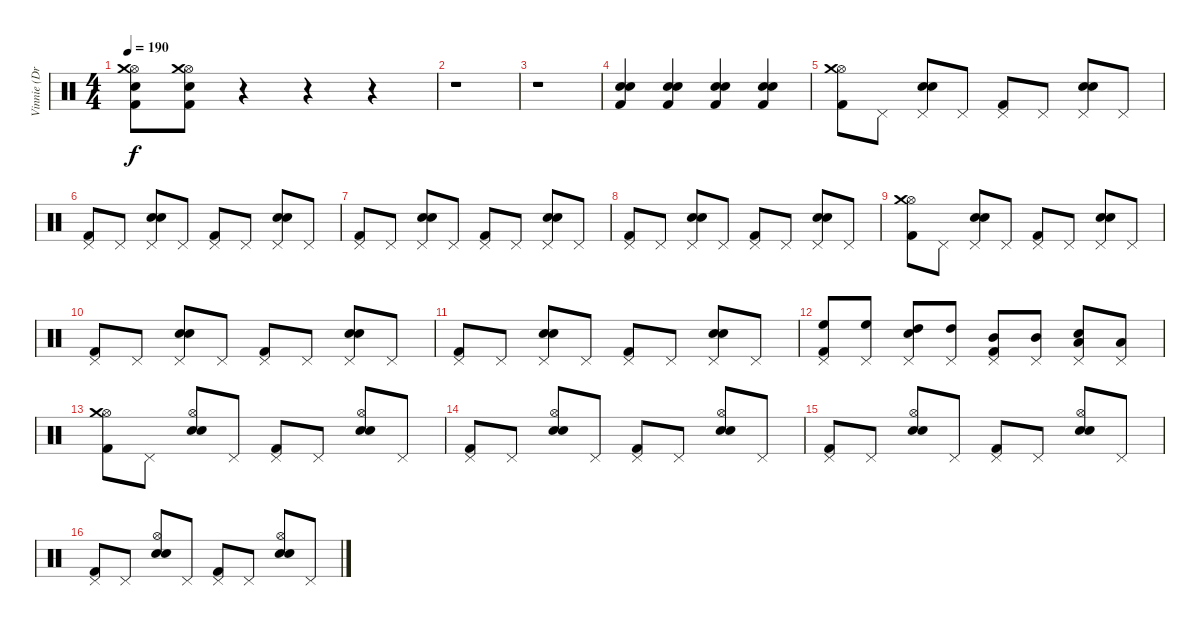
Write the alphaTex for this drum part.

\track ("Vinnie (Drums)" "Vinnie (Dr") {instrument percussion}
\staff {score}
\articulation defaults
\ts (4 4)
\tempo 190
\clef neutral
\ks c
("Kick (hit) 2" "Snare (hit) 2" "Hi-Hat (open)" "Crash medium (hit)").8{dy f} ("Kick (hit) 2" "Snare (hit) 2" "Hi-Hat (open)" "Crash medium (hit)").8 r.4 r.4 r.4 |
r.1 |
r.1 |
("Kick (hit) 2" "Snare (hit) 2" "Electric Snare (hit)").4 ("Kick (hit) 2" "Snare (hit) 2" "Electric Snare (hit)").4 ("Kick (hit) 2" "Snare (hit) 2" "Electric Snare (hit)").4 ("Kick (hit) 2" "Snare (hit) 2" "Electric Snare (hit)").4 |
("Kick (hit) 2" "Hi-Hat (open)" "Crash medium (hit)").8 "Pedal Hi-Hat (hit)".8 ("Snare (hit) 2" "Electric Snare (hit)" "Pedal Hi-Hat (hit)").8 "Pedal Hi-Hat (hit)".8 ("Kick (hit) 2" "Pedal Hi-Hat (hit)").8 "Pedal Hi-Hat (hit)".8 ("Snare (hit) 2" "Electric Snare (hit)" "Pedal Hi-Hat (hit)").8 "Pedal Hi-Hat (hit)".8 |
("Kick (hit) 2" "Pedal Hi-Hat (hit)").8 "Pedal Hi-Hat (hit)".8 ("Snare (hit) 2" "Electric Snare (hit)" "Pedal Hi-Hat (hit)").8 "Pedal Hi-Hat (hit)".8 ("Kick (hit) 2" "Pedal Hi-Hat (hit)").8 "Pedal Hi-Hat (hit)".8 ("Snare (hit) 2" "Electric Snare (hit)" "Pedal Hi-Hat (hit)").8 "Pedal Hi-Hat (hit)".8 |
("Kick (hit) 2" "Pedal Hi-Hat (hit)").8 "Pedal Hi-Hat (hit)".8 ("Snare (hit) 2" "Electric Snare (hit)" "Pedal Hi-Hat (hit)").8 "Pedal Hi-Hat (hit)".8 ("Kick (hit) 2" "Pedal Hi-Hat (hit)").8 "Pedal Hi-Hat (hit)".8 ("Snare (hit) 2" "Electric Snare (hit)" "Pedal Hi-Hat (hit)").8 "Pedal Hi-Hat (hit)".8 |
("Kick (hit) 2" "Pedal Hi-Hat (hit)").8 "Pedal Hi-Hat (hit)".8 ("Snare (hit) 2" "Electric Snare (hit)" "Pedal Hi-Hat (hit)").8 "Pedal Hi-Hat (hit)".8 ("Kick (hit) 2" "Pedal Hi-Hat (hit)").8 "Pedal Hi-Hat (hit)".8 ("Snare (hit) 2" "Electric Snare (hit)" "Pedal Hi-Hat (hit)").8 "Pedal Hi-Hat (hit)".8 |
("Kick (hit) 2" "Hi-Hat (open)" "Crash medium (hit)").8 "Pedal Hi-Hat (hit)".8 ("Snare (hit) 2" "Electric Snare (hit)" "Pedal Hi-Hat (hit)").8 "Pedal Hi-Hat (hit)".8 ("Kick (hit) 2" "Pedal Hi-Hat (hit)").8 "Pedal Hi-Hat (hit)".8 ("Snare (hit) 2" "Electric Snare (hit)" "Pedal Hi-Hat (hit)").8 "Pedal Hi-Hat (hit)".8 |
("Kick (hit) 2" "Pedal Hi-Hat (hit)").8 "Pedal Hi-Hat (hit)".8 ("Snare (hit) 2" "Electric Snare (hit)" "Pedal Hi-Hat (hit)").8 "Pedal Hi-Hat (hit)".8 ("Kick (hit) 2" "Pedal Hi-Hat (hit)").8 "Pedal Hi-Hat (hit)".8 ("Snare (hit) 2" "Electric Snare (hit)" "Pedal Hi-Hat (hit)").8 "Pedal Hi-Hat (hit)".8 |
("Kick (hit) 2" "Pedal Hi-Hat (hit)").8 "Pedal Hi-Hat (hit)".8 ("Snare (hit) 2" "Electric Snare (hit)" "Pedal Hi-Hat (hit)").8 "Pedal Hi-Hat (hit)".8 ("Kick (hit) 2" "Pedal Hi-Hat (hit)").8 "Pedal Hi-Hat (hit)".8 ("Snare (hit) 2" "Electric Snare (hit)" "Pedal Hi-Hat (hit)").8 "Pedal Hi-Hat (hit)".8 |
("Kick (hit) 2" "High Floor Tom (hit)" "Pedal Hi-Hat (hit)").8 ("High Floor Tom (hit)" "Pedal Hi-Hat (hit)").8 ("Snare (hit) 2" "High Tom (hit)" "Pedal Hi-Hat (hit)").8 ("High Tom (hit)" "Pedal Hi-Hat (hit)").8 ("Kick (hit) 2" "Mid Tom (hit)" "Pedal Hi-Hat (hit)").8 ("Mid Tom (hit)" "Pedal Hi-Hat (hit)").8 ("Snare (hit) 2" "Low Tom (hit)" "Pedal Hi-Hat (hit)").8 ("Low Tom (hit)" "Pedal Hi-Hat (hit)").8 |
("Kick (hit) 2" "Hi-Hat (open)" "Crash medium (hit)").8 "Pedal Hi-Hat (hit)".8 ("Snare (hit) 2" "Electric Snare (hit)" "Hi-Hat (open)").8 "Pedal Hi-Hat (hit)".8 ("Kick (hit) 2" "Pedal Hi-Hat (hit)").8 "Pedal Hi-Hat (hit)".8 ("Snare (hit) 2" "Electric Snare (hit)" "Hi-Hat (open)").8 "Pedal Hi-Hat (hit)".8 |
("Kick (hit) 2" "Pedal Hi-Hat (hit)").8 "Pedal Hi-Hat (hit)".8 ("Snare (hit) 2" "Electric Snare (hit)" "Hi-Hat (open)").8 "Pedal Hi-Hat (hit)".8 ("Kick (hit) 2" "Pedal Hi-Hat (hit)").8 "Pedal Hi-Hat (hit)".8 ("Snare (hit) 2" "Electric Snare (hit)" "Hi-Hat (open)").8 "Pedal Hi-Hat (hit)".8 |
("Kick (hit) 2" "Pedal Hi-Hat (hit)").8 "Pedal Hi-Hat (hit)".8 ("Snare (hit) 2" "Electric Snare (hit)" "Hi-Hat (open)").8 "Pedal Hi-Hat (hit)".8 ("Kick (hit) 2" "Pedal Hi-Hat (hit)").8 "Pedal Hi-Hat (hit)".8 ("Snare (hit) 2" "Electric Snare (hit)" "Hi-Hat (open)").8 "Pedal Hi-Hat (hit)".8 |
("Kick (hit) 2" "Pedal Hi-Hat (hit)").8 "Pedal Hi-Hat (hit)".8 ("Snare (hit) 2" "Electric Snare (hit)" "Hi-Hat (open)").8 "Pedal Hi-Hat (hit)".8 ("Kick (hit) 2" "Pedal Hi-Hat (hit)").8 "Pedal Hi-Hat (hit)".8 ("Snare (hit) 2" "Electric Snare (hit)" "Hi-Hat (open)").8 "Pedal Hi-Hat (hit)".8
